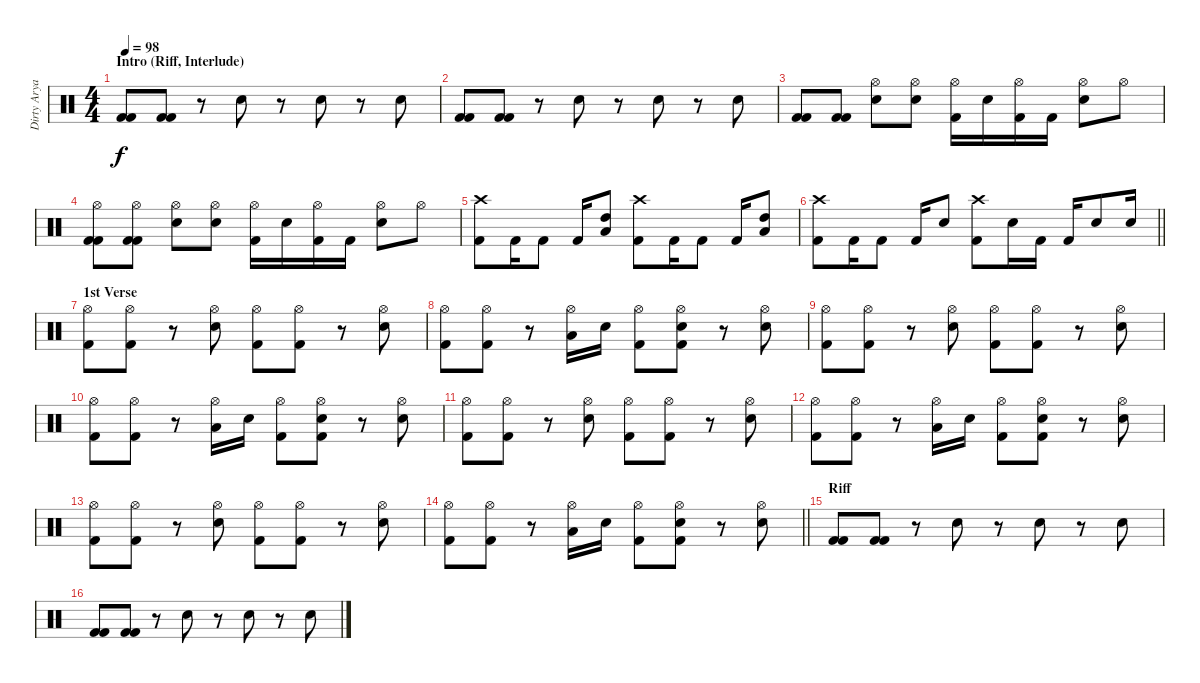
\track ("Dirty Arya" "Dirty Arya") {instrument percussion}
\staff {score}
\articulation defaults
\ts (4 4)
\section ("" "Intro (Riff, Interlude)")
\tempo 98
\clef neutral
\ks c
("Kick (hit) 2" "Kick (hit) 2").8{dy f} ("Kick (hit) 2" "Kick (hit) 2").8 r.8 "Electric Snare (hit)".8 r.8 "Electric Snare (hit)".8 r.8 "Electric Snare (hit)".8 |
("Kick (hit) 2" "Kick (hit) 2").8 ("Kick (hit) 2" "Kick (hit) 2").8 r.8 "Electric Snare (hit)".8 r.8 "Electric Snare (hit)".8 r.8 "Electric Snare (hit)".8 |
("Kick (hit) 2" "Kick (hit) 2").8 ("Kick (hit) 2" "Kick (hit) 2").8 ("Hi-Hat (open)" "Electric Snare (hit)").8 ("Hi-Hat (open)" "Electric Snare (hit)").8 ("Hi-Hat (open)" "Kick (hit) 2").16 "Electric Snare (hit)".16 ("Hi-Hat (open)" "Kick (hit) 2").16 "Kick (hit) 2".16 ("Hi-Hat (open)" "Electric Snare (hit)").8 "Hi-Hat (open)".8 |
("Hi-Hat (open)" "Kick (hit) 2" "Kick (hit) 2").8 ("Hi-Hat (open)" "Kick (hit) 2" "Kick (hit) 2").8 ("Hi-Hat (open)" "Electric Snare (hit)").8 ("Hi-Hat (open)" "Electric Snare (hit)").8 ("Hi-Hat (open)" "Kick (hit) 2").16 "Electric Snare (hit)".16 ("Hi-Hat (open)" "Kick (hit) 2").16 "Kick (hit) 2".16 ("Hi-Hat (open)" "Electric Snare (hit)").8 "Hi-Hat (open)".8 |
("Crash high (hit)" "Kick (hit) 2").8 "Kick (hit) 2".16 "Kick (hit) 2".8 "Kick (hit) 2".16 ("High Tom (hit)" "Low Tom (hit)").8 ("Crash high (hit)" "Kick (hit) 2").8 "Kick (hit) 2".16 "Kick (hit) 2".8 "Kick (hit) 2".16 ("High Tom (hit)" "Low Tom (hit)").8 |
\barLineRight lightlight
("Crash high (hit)" "Kick (hit) 2").8 "Kick (hit) 2".16 "Kick (hit) 2".8 "Kick (hit) 2".16 "Electric Snare (hit)".8 ("Crash high (hit)" "Kick (hit) 2").8 "Electric Snare (hit)".16 "Kick (hit) 2".16 "Kick (hit) 2".16 "Electric Snare (hit)".8 "Electric Snare (hit)".16 |
\section ("" "1st Verse")
("Hi-Hat (open)" "Kick (hit) 2").8 ("Hi-Hat (open)" "Kick (hit) 2").8 r.8 ("Hi-Hat (open)" "Electric Snare (hit)").8 ("Hi-Hat (open)" "Kick (hit) 2").8 ("Hi-Hat (open)" "Kick (hit) 2").8 r.8 ("Hi-Hat (open)" "Electric Snare (hit)").8 |
("Hi-Hat (open)" "Kick (hit) 2").8 ("Hi-Hat (open)" "Kick (hit) 2").8 r.8 ("Hi-Hat (open)" "Low Tom (hit)").16 "Electric Snare (hit)".16 ("Hi-Hat (open)" "Kick (hit) 2").8 ("Hi-Hat (open)" "Electric Snare (hit)" "Kick (hit) 2").8 r.8 ("Hi-Hat (open)" "Electric Snare (hit)").8 |
("Hi-Hat (open)" "Kick (hit) 2").8 ("Hi-Hat (open)" "Kick (hit) 2").8 r.8 ("Hi-Hat (open)" "Electric Snare (hit)").8 ("Hi-Hat (open)" "Kick (hit) 2").8 ("Hi-Hat (open)" "Kick (hit) 2").8 r.8 ("Hi-Hat (open)" "Electric Snare (hit)").8 |
("Hi-Hat (open)" "Kick (hit) 2").8 ("Hi-Hat (open)" "Kick (hit) 2").8 r.8 ("Hi-Hat (open)" "Low Tom (hit)").16 "Electric Snare (hit)".16 ("Hi-Hat (open)" "Kick (hit) 2").8 ("Hi-Hat (open)" "Electric Snare (hit)" "Kick (hit) 2").8 r.8 ("Hi-Hat (open)" "Electric Snare (hit)").8 |
("Hi-Hat (open)" "Kick (hit) 2").8 ("Hi-Hat (open)" "Kick (hit) 2").8 r.8 ("Hi-Hat (open)" "Electric Snare (hit)").8 ("Hi-Hat (open)" "Kick (hit) 2").8 ("Hi-Hat (open)" "Kick (hit) 2").8 r.8 ("Hi-Hat (open)" "Electric Snare (hit)").8 |
("Hi-Hat (open)" "Kick (hit) 2").8 ("Hi-Hat (open)" "Kick (hit) 2").8 r.8 ("Hi-Hat (open)" "Low Tom (hit)").16 "Electric Snare (hit)".16 ("Hi-Hat (open)" "Kick (hit) 2").8 ("Hi-Hat (open)" "Electric Snare (hit)" "Kick (hit) 2").8 r.8 ("Hi-Hat (open)" "Electric Snare (hit)").8 |
("Hi-Hat (open)" "Kick (hit) 2").8 ("Hi-Hat (open)" "Kick (hit) 2").8 r.8 ("Hi-Hat (open)" "Electric Snare (hit)").8 ("Hi-Hat (open)" "Kick (hit) 2").8 ("Hi-Hat (open)" "Kick (hit) 2").8 r.8 ("Hi-Hat (open)" "Electric Snare (hit)").8 |
\barLineRight lightlight
("Hi-Hat (open)" "Kick (hit) 2").8 ("Hi-Hat (open)" "Kick (hit) 2").8 r.8 ("Hi-Hat (open)" "Low Tom (hit)").16 "Electric Snare (hit)".16 ("Hi-Hat (open)" "Kick (hit) 2").8 ("Hi-Hat (open)" "Electric Snare (hit)" "Kick (hit) 2").8 r.8 ("Hi-Hat (open)" "Electric Snare (hit)").8 |
\section ("" "Riff")
("Kick (hit) 2" "Kick (hit) 2").8 ("Kick (hit) 2" "Kick (hit) 2").8 r.8 "Electric Snare (hit)".8 r.8 "Electric Snare (hit)".8 r.8 "Electric Snare (hit)".8 |
("Kick (hit) 2" "Kick (hit) 2").8 ("Kick (hit) 2" "Kick (hit) 2").8 r.8 "Electric Snare (hit)".8 r.8 "Electric Snare (hit)".8 r.8 "Electric Snare (hit)".8
